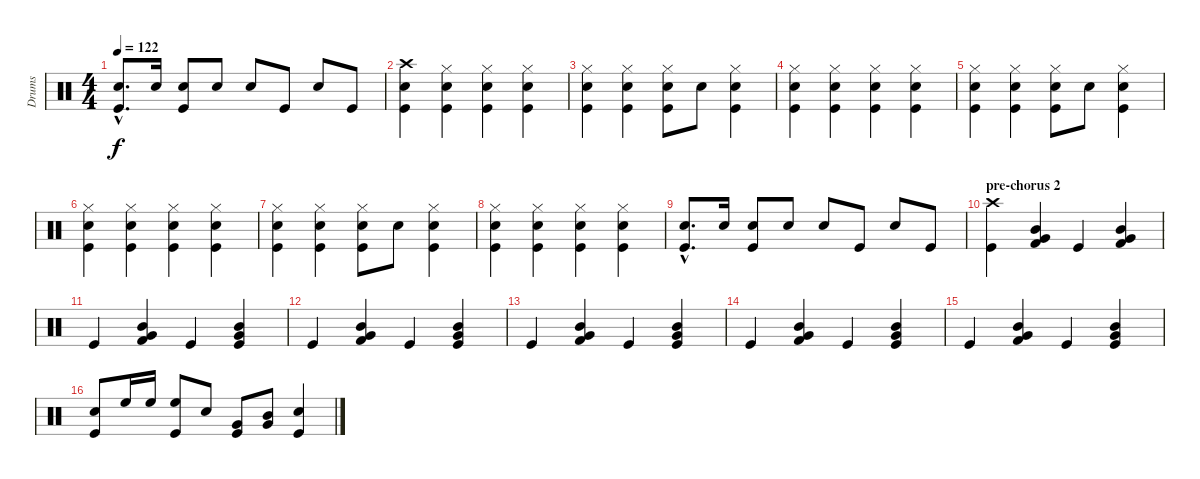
\track ("Drums" "Drums") {instrument percussion}
\staff {score}
\articulation defaults
\ts (4 4)
\tempo 122
\clef neutral
\ks c
("Electric Snare (hit)"{hac} "Kick (hit)"{hac}).8{d dy f} "Electric Snare (hit)".16 ("Electric Snare (hit)" "Kick (hit)").8 "Electric Snare (hit)".8 "Electric Snare (hit)".8 "Kick (hit)".8 "Electric Snare (hit)".8 "Kick (hit)".8 |
("Crash high (hit)" "Electric Snare (hit)" "Kick (hit)").4 ("Hi-Hat (closed)" "Electric Snare (hit)" "Kick (hit)").4 ("Hi-Hat (closed)" "Electric Snare (hit)" "Kick (hit)").4 ("Hi-Hat (closed)" "Electric Snare (hit)" "Kick (hit)").4 |
("Hi-Hat (closed)" "Electric Snare (hit)" "Kick (hit)").4 ("Hi-Hat (closed)" "Electric Snare (hit)" "Kick (hit)").4 ("Hi-Hat (closed)" "Electric Snare (hit)" "Kick (hit)").8 "Electric Snare (hit)".8 ("Hi-Hat (closed)" "Electric Snare (hit)" "Kick (hit)").4 |
("Hi-Hat (closed)" "Electric Snare (hit)" "Kick (hit)").4 ("Hi-Hat (closed)" "Electric Snare (hit)" "Kick (hit)").4 ("Hi-Hat (closed)" "Electric Snare (hit)" "Kick (hit)").4 ("Hi-Hat (closed)" "Electric Snare (hit)" "Kick (hit)").4 |
("Hi-Hat (closed)" "Electric Snare (hit)" "Kick (hit)").4 ("Hi-Hat (closed)" "Electric Snare (hit)" "Kick (hit)").4 ("Hi-Hat (closed)" "Electric Snare (hit)" "Kick (hit)").8 "Electric Snare (hit)".8 ("Hi-Hat (closed)" "Electric Snare (hit)" "Kick (hit)").4 |
("Hi-Hat (closed)" "Electric Snare (hit)" "Kick (hit)").4 ("Hi-Hat (closed)" "Electric Snare (hit)" "Kick (hit)").4 ("Hi-Hat (closed)" "Electric Snare (hit)" "Kick (hit)").4 ("Hi-Hat (closed)" "Electric Snare (hit)" "Kick (hit)").4 |
("Hi-Hat (closed)" "Electric Snare (hit)" "Kick (hit)").4 ("Hi-Hat (closed)" "Electric Snare (hit)" "Kick (hit)").4 ("Hi-Hat (closed)" "Electric Snare (hit)" "Kick (hit)").8 "Electric Snare (hit)".8 ("Hi-Hat (closed)" "Electric Snare (hit)" "Kick (hit)").4 |
("Hi-Hat (closed)" "Electric Snare (hit)" "Kick (hit)").4 ("Hi-Hat (closed)" "Electric Snare (hit)" "Kick (hit)").4 ("Hi-Hat (closed)" "Electric Snare (hit)" "Kick (hit)").4 ("Hi-Hat (closed)" "Electric Snare (hit)" "Kick (hit)").4 |
("Electric Snare (hit)"{hac} "Kick (hit)"{hac}).8{d} "Electric Snare (hit)".16 ("Electric Snare (hit)" "Kick (hit)").8 "Electric Snare (hit)".8 "Electric Snare (hit)".8 "Kick (hit)".8 "Electric Snare (hit)".8 "Kick (hit)".8 |
\section ("" "pre-chorus 2")
("Crash high (hit)" "Kick (hit)").4 ("Mid Tom (hit)" "Very Low Tom (hit)" "Kick (hit) 2").4 "Kick (hit)".4 ("Mid Tom (hit)" "Very Low Tom (hit)" "Kick (hit) 2").4 |
"Kick (hit)".4 ("Mid Tom (hit)" "Very Low Tom (hit)" "Kick (hit) 2").4 "Kick (hit)".4 ("Mid Tom (hit)" "Very Low Tom (hit)" "Kick (hit)").4 |
"Kick (hit)".4 ("Mid Tom (hit)" "Very Low Tom (hit)" "Kick (hit) 2").4 "Kick (hit)".4 ("Mid Tom (hit)" "Very Low Tom (hit)" "Kick (hit)").4 |
"Kick (hit)".4 ("Mid Tom (hit)" "Very Low Tom (hit)" "Kick (hit) 2").4 "Kick (hit)".4 ("Mid Tom (hit)" "Very Low Tom (hit)" "Kick (hit)").4 |
"Kick (hit)".4 ("Mid Tom (hit)" "Very Low Tom (hit)" "Kick (hit) 2").4 "Kick (hit)".4 ("Mid Tom (hit)" "Very Low Tom (hit)" "Kick (hit)").4 |
"Kick (hit)".4 ("Mid Tom (hit)" "Very Low Tom (hit)" "Kick (hit) 2").4 "Kick (hit)".4 ("Mid Tom (hit)" "Very Low Tom (hit)" "Kick (hit)").4 |
("Electric Snare (hit)" "Kick (hit)").8 "High Floor Tom (hit)".16 "High Floor Tom (hit)".16 ("High Floor Tom (hit)" "Kick (hit)").8 "Electric Snare (hit)".8 ("Very Low Tom (hit)" "Kick (hit)").8 ("Mid Tom (hit)" "Very Low Tom (hit)").8 ("Electric Snare (hit)" "Kick (hit)").4
